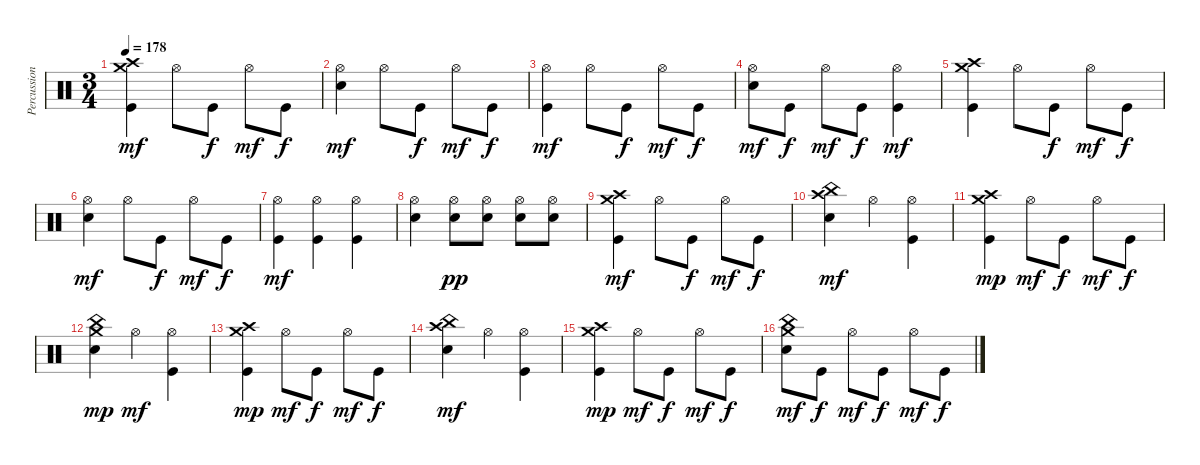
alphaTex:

\track ("Percussions" "Percussion") {instrument percussion}
\staff {score}
\articulation defaults
\ts (3 4)
\tempo 178
\clef neutral
\ks c
("Kick (hit)" "Crash high (hit)" "Crash medium (hit)").4{dy mf} "Hi-Hat (open)".8 "Kick (hit)".8{dy f} "Hi-Hat (open)".8{dy mf} "Kick (hit)".8{dy f} |
("Electric Snare (hit)" "Hi-Hat (open)").4{dy mf} "Hi-Hat (open)".8 "Kick (hit)".8{dy f} "Hi-Hat (open)".8{dy mf} "Kick (hit)".8{dy f} |
("Kick (hit)" "Hi-Hat (open)").4{dy mf} "Hi-Hat (open)".8 "Kick (hit)".8{dy f} "Hi-Hat (open)".8{dy mf} "Kick (hit)".8{dy f} |
("Electric Snare (hit)" "Hi-Hat (open)").8{dy mf} "Kick (hit)".8{dy f} "Hi-Hat (open)".8{dy mf} "Kick (hit)".8{dy f} ("Kick (hit)" "Hi-Hat (open)").4{dy mf} |
("Kick (hit)" "Crash high (hit)" "Crash medium (hit)").4 "Hi-Hat (open)".8 "Kick (hit)".8{dy f} "Hi-Hat (open)".8{dy mf} "Kick (hit)".8{dy f} |
("Electric Snare (hit)" "Hi-Hat (open)").4{dy mf} "Hi-Hat (open)".8 "Kick (hit)".8{dy f} "Hi-Hat (open)".8{dy mf} "Kick (hit)".8{dy f} |
("Kick (hit)" "Hi-Hat (open)").4{dy mf} ("Kick (hit)" "Hi-Hat (open)").4 ("Kick (hit)" "Hi-Hat (open)").4 |
("Electric Snare (hit)" "Hi-Hat (open)").4 ("Electric Snare (hit)" "Hi-Hat (open)").8{dy pp} ("Electric Snare (hit)" "Hi-Hat (open)").8 ("Electric Snare (hit)" "Hi-Hat (open)").8 ("Electric Snare (hit)" "Hi-Hat (open)").8 |
("Kick (hit)" "Crash high (hit)" "Crash medium (hit)").4{dy mf} "Hi-Hat (open)".8 "Kick (hit)".8{dy f} "Hi-Hat (open)".8{dy mf} "Kick (hit)".8{dy f} |
("Electric Snare (hit)" "China (hit)" "Crash high (hit)").4{dy mf} "Hi-Hat (open)".4 ("Kick (hit)" "Hi-Hat (open)").4 |
("Kick (hit)" "Crash high (hit)" "Crash medium (hit)").4{dy mp} "Hi-Hat (open)".8{dy mf} "Kick (hit)".8{dy f} "Hi-Hat (open)".8{dy mf} "Kick (hit)".8{dy f} |
("Electric Snare (hit)" "China (hit)" "Crash medium (hit)").4{dy mp} "Hi-Hat (open)".4{dy mf} ("Kick (hit)" "Hi-Hat (open)").4 |
("Kick (hit)" "Crash high (hit)" "Crash medium (hit)").4{dy mp} "Hi-Hat (open)".8{dy mf} "Kick (hit)".8{dy f} "Hi-Hat (open)".8{dy mf} "Kick (hit)".8{dy f} |
("Electric Snare (hit)" "China (hit)" "Crash high (hit)").4{dy mf} "Hi-Hat (open)".4 ("Kick (hit)" "Hi-Hat (open)").4 |
("Kick (hit)" "Crash high (hit)" "Crash medium (hit)").4{dy mp} "Hi-Hat (open)".8{dy mf} "Kick (hit)".8{dy f} "Hi-Hat (open)".8{dy mf} "Kick (hit)".8{dy f} |
("Electric Snare (hit)" "China (hit)" "Crash medium (hit)").8{dy mf} "Kick (hit)".8{dy f} "Hi-Hat (open)".8{dy mf} "Kick (hit)".8{dy f} "Hi-Hat (open)".8{dy mf} "Kick (hit)".8{dy f}
